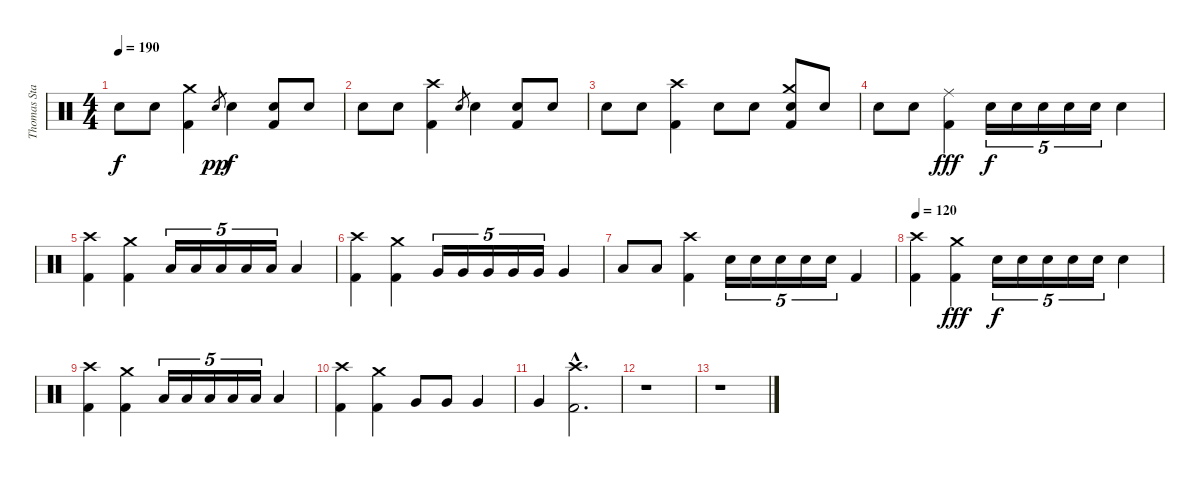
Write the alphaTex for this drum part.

\track ("Thomas Stauch" "Thomas Sta") {instrument percussion}
\staff {score}
\articulation defaults
\ts (4 4)
\tempo 190
\clef neutral
\ks c "Electric Snare (hit)".8{dy f} "Electric Snare (hit)".8
("Crash medium (hit)" "Kick (hit) 2").4 "Electric Snare (hit)".8{gr dy pp} "Electric Snare (hit)".4{dy f} ("Electric Snare (hit)" "Kick (hit) 2").8 "Electric Snare (hit)".8 |
"Electric Snare (hit)".8 "Electric Snare (hit)".8 ("Crash high (hit)" "Kick (hit) 2").4 "Electric Snare (hit)".8{gr} "Electric Snare (hit)".4 ("Electric Snare (hit)" "Kick (hit) 2").8 "Electric Snare (hit)".8 |
"Electric Snare (hit)".8 "Electric Snare (hit)".8 ("Crash high (hit)" "Kick (hit) 2").4 "Electric Snare (hit)".8 "Electric Snare (hit)".8 ("Crash medium (hit)" "Electric Snare (hit)" "Kick (hit) 2").8 "Electric Snare (hit)".8 |
"Electric Snare (hit)".8 "Electric Snare (hit)".8 ("Ride (middle)" "Kick (hit) 2").4{dy fff} "Electric Snare (hit)".16{tu (5 4) dy f} "Electric Snare (hit)".16{tu (5 4)} "Electric Snare (hit)".16{tu (5 4)} "Electric Snare (hit)".16{tu (5 4)} "Electric Snare (hit)".16{tu (5 4)} "Electric Snare (hit)".4 |
("Crash high (hit)" "Kick (hit) 2").4 ("Crash medium (hit)" "Kick (hit) 2").4 "Low Tom (hit)".16{tu (5 4)} "Low Tom (hit)".16{tu (5 4)} "Low Tom (hit)".16{tu (5 4)} "Low Tom (hit)".16{tu (5 4)} "Low Tom (hit)".16{tu (5 4)} "Low Tom (hit)".4 |
("Crash high (hit)" "Kick (hit) 2").4 ("Crash medium (hit)" "Kick (hit) 2").4 "Very Low Tom (hit)".16{tu (5 4)} "Very Low Tom (hit)".16{tu (5 4)} "Very Low Tom (hit)".16{tu (5 4)} "Very Low Tom (hit)".16{tu (5 4)} "Very Low Tom (hit)".16{tu (5 4)} "Very Low Tom (hit)".4 |
"Low Tom (hit)".8 "Low Tom (hit)".8 ("Crash high (hit)" "Kick (hit) 2").4 "Electric Snare (hit)".16{tu (5 4)} "Electric Snare (hit)".16{tu (5 4)} "Electric Snare (hit)".16{tu (5 4)} "Electric Snare (hit)".16{tu (5 4)} "Electric Snare (hit)".16{tu (5 4)} "Kick (hit) 2".4 |
\tempo 120
("Crash high (hit)" "Kick (hit) 2").4 ("Crash medium (hit)" "Kick (hit) 2").4{dy fff} "Electric Snare (hit)".16{tu (5 4) dy f} "Electric Snare (hit)".16{tu (5 4)} "Electric Snare (hit)".16{tu (5 4)} "Electric Snare (hit)".16{tu (5 4)} "Electric Snare (hit)".16{tu (5 4)} "Electric Snare (hit)".4 |
("Crash high (hit)" "Kick (hit) 2").4 ("Crash medium (hit)" "Kick (hit) 2").4 "Low Tom (hit)".16{tu (5 4)} "Low Tom (hit)".16{tu (5 4)} "Low Tom (hit)".16{tu (5 4)} "Low Tom (hit)".16{tu (5 4)} "Low Tom (hit)".16{tu (5 4)} "Low Tom (hit)".4 |
("Crash high (hit)" "Kick (hit) 2").4 ("Crash medium (hit)" "Kick (hit) 2").4 "Very Low Tom (hit)".8 "Very Low Tom (hit)".8 "Very Low Tom (hit)".4 |
"Very Low Tom (hit)".4 ("Crash high (hit)"{hac} "Kick (hit) 2"{hac}).2{d} |
r.1 |
r.1
